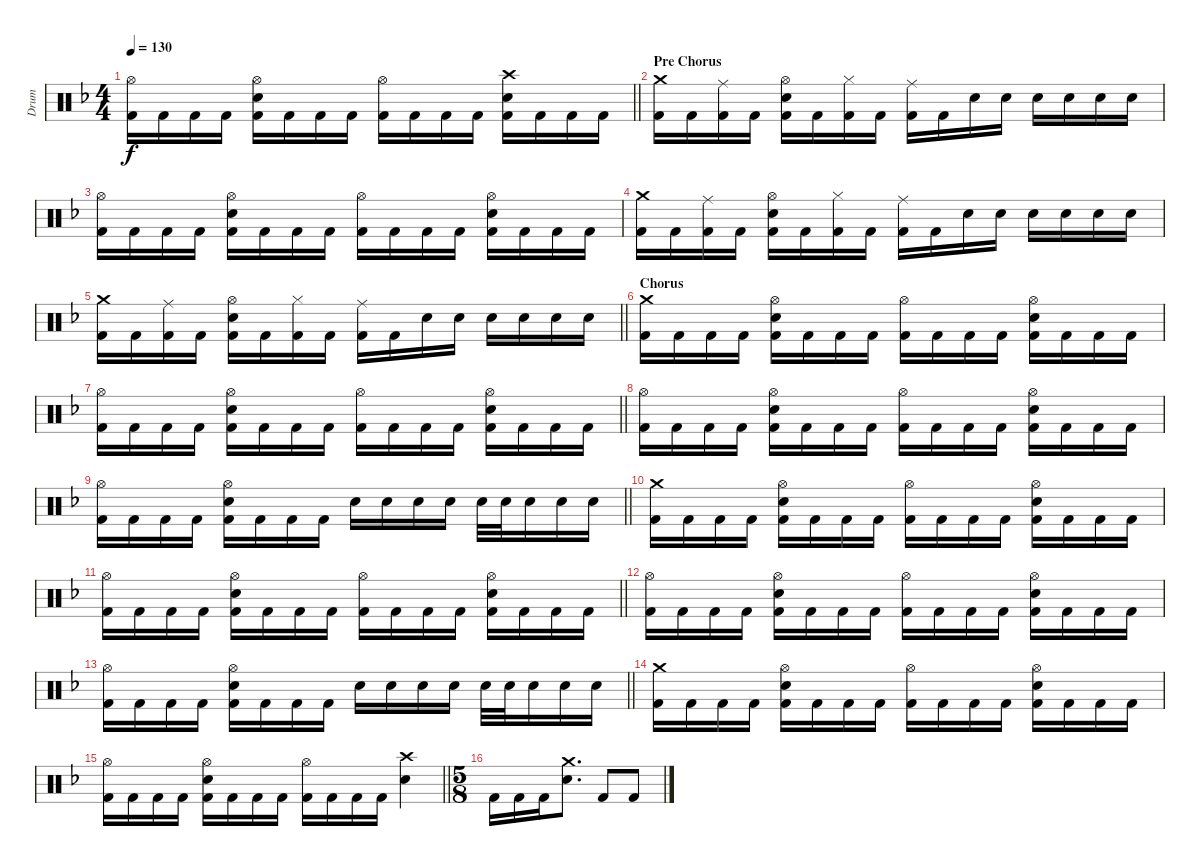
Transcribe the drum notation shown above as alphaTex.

\track ("Drum" "Drum") {instrument percussion}
\staff {score}
\articulation defaults
\ts (4 4)
\tempo 130
\clef neutral
\barLineRight lightlight
\ks f
("Hi-Hat (open)" "Kick (hit) 2").16{dy f} "Kick (hit) 2".16 "Kick (hit) 2".16 "Kick (hit) 2".16 ("Hi-Hat (open)" "Electric Snare (hit)" "Kick (hit) 2").16 "Kick (hit) 2".16 "Kick (hit) 2".16 "Kick (hit) 2".16 ("Hi-Hat (open)" "Kick (hit) 2").16 "Kick (hit) 2".16 "Kick (hit) 2".16 "Kick (hit) 2".16 ("Crash high (hit)" "Electric Snare (hit)" "Kick (hit) 2").16 "Kick (hit) 2".16 "Kick (hit) 2".16 "Kick (hit) 2".16 |
\section ("" "Pre Chorus")
("Crash medium (hit)" "Kick (hit) 2").16 "Kick (hit) 2".16 ("Ride (middle)" "Kick (hit) 2").16 "Kick (hit) 2".16 ("Hi-Hat (open)" "Electric Snare (hit)" "Kick (hit) 2").16 "Kick (hit) 2".16 ("Hi-Hat (closed)" "Kick (hit) 2").16 "Kick (hit) 2".16 ("Ride (middle)" "Kick (hit) 2").16 "Kick (hit) 2".16 "Electric Snare (hit)".16 "Electric Snare (hit)".16 "Electric Snare (hit)".16 "Electric Snare (hit)".16 "Electric Snare (hit)".16 "Electric Snare (hit)".16 |
("Hi-Hat (open)" "Kick (hit) 2").16 "Kick (hit) 2".16 "Kick (hit) 2".16 "Kick (hit) 2".16 ("Hi-Hat (open)" "Electric Snare (hit)" "Kick (hit) 2").16 "Kick (hit) 2".16 "Kick (hit) 2".16 "Kick (hit) 2".16 ("Hi-Hat (open)" "Kick (hit) 2").16 "Kick (hit) 2".16 "Kick (hit) 2".16 "Kick (hit) 2".16 ("Hi-Hat (open)" "Electric Snare (hit)" "Kick (hit) 2").16 "Kick (hit) 2".16 "Kick (hit) 2".16 "Kick (hit) 2".16 |
("Crash medium (hit)" "Kick (hit) 2").16 "Kick (hit) 2".16 ("Ride (middle)" "Kick (hit) 2").16 "Kick (hit) 2".16 ("Hi-Hat (open)" "Electric Snare (hit)" "Kick (hit) 2").16 "Kick (hit) 2".16 ("Hi-Hat (closed)" "Kick (hit) 2").16 "Kick (hit) 2".16 ("Ride (middle)" "Kick (hit) 2").16 "Kick (hit) 2".16 "Electric Snare (hit)".16 "Electric Snare (hit)".16 "Electric Snare (hit)".16 "Electric Snare (hit)".16 "Electric Snare (hit)".16 "Electric Snare (hit)".16 |
\barLineRight lightlight
("Crash medium (hit)" "Kick (hit) 2").16 "Kick (hit) 2".16 ("Ride (middle)" "Kick (hit) 2").16 "Kick (hit) 2".16 ("Hi-Hat (open)" "Electric Snare (hit)" "Kick (hit) 2").16 "Kick (hit) 2".16 ("Hi-Hat (closed)" "Kick (hit) 2").16 "Kick (hit) 2".16 ("Ride (middle)" "Kick (hit) 2").16 "Kick (hit) 2".16 "Electric Snare (hit)".16 "Electric Snare (hit)".16 "Electric Snare (hit)".16 "Electric Snare (hit)".16 "Electric Snare (hit)".16 "Electric Snare (hit)".16 |
\section ("" "Chorus")
("Crash medium (hit)" "Kick (hit) 2").16 "Kick (hit) 2".16 "Kick (hit) 2".16 "Kick (hit) 2".16 ("Hi-Hat (open)" "Electric Snare (hit)" "Kick (hit) 2").16 "Kick (hit) 2".16 "Kick (hit) 2".16 "Kick (hit) 2".16 ("Hi-Hat (open)" "Kick (hit) 2").16 "Kick (hit) 2".16 "Kick (hit) 2".16 "Kick (hit) 2".16 ("Hi-Hat (open)" "Electric Snare (hit)" "Kick (hit) 2").16 "Kick (hit) 2".16 "Kick (hit) 2".16 "Kick (hit) 2".16 |
\barLineRight lightlight
("Hi-Hat (open)" "Kick (hit) 2").16 "Kick (hit) 2".16 "Kick (hit) 2".16 "Kick (hit) 2".16 ("Hi-Hat (open)" "Electric Snare (hit)" "Kick (hit) 2").16 "Kick (hit) 2".16 "Kick (hit) 2".16 "Kick (hit) 2".16 ("Hi-Hat (open)" "Kick (hit) 2").16 "Kick (hit) 2".16 "Kick (hit) 2".16 "Kick (hit) 2".16 ("Hi-Hat (open)" "Electric Snare (hit)" "Kick (hit) 2").16 "Kick (hit) 2".16 "Kick (hit) 2".16 "Kick (hit) 2".16 |
("Hi-Hat (open)" "Kick (hit) 2").16 "Kick (hit) 2".16 "Kick (hit) 2".16 "Kick (hit) 2".16 ("Hi-Hat (open)" "Electric Snare (hit)" "Kick (hit) 2").16 "Kick (hit) 2".16 "Kick (hit) 2".16 "Kick (hit) 2".16 ("Hi-Hat (open)" "Kick (hit) 2").16 "Kick (hit) 2".16 "Kick (hit) 2".16 "Kick (hit) 2".16 ("Hi-Hat (open)" "Electric Snare (hit)" "Kick (hit) 2").16 "Kick (hit) 2".16 "Kick (hit) 2".16 "Kick (hit) 2".16 |
\barLineRight lightlight
("Hi-Hat (open)" "Kick (hit) 2").16 "Kick (hit) 2".16 "Kick (hit) 2".16 "Kick (hit) 2".16 ("Hi-Hat (open)" "Electric Snare (hit)" "Kick (hit) 2").16 "Kick (hit) 2".16 "Kick (hit) 2".16 "Kick (hit) 2".16 "Electric Snare (hit)".16 "Electric Snare (hit)".16 "Electric Snare (hit)".16 "Electric Snare (hit)".16 "Electric Snare (hit)".32 "Electric Snare (hit)".32 "Electric Snare (hit)".16 "Electric Snare (hit)".16 "Electric Snare (hit)".16 |
("Crash medium (hit)" "Kick (hit) 2").16 "Kick (hit) 2".16 "Kick (hit) 2".16 "Kick (hit) 2".16 ("Hi-Hat (open)" "Electric Snare (hit)" "Kick (hit) 2").16 "Kick (hit) 2".16 "Kick (hit) 2".16 "Kick (hit) 2".16 ("Hi-Hat (open)" "Kick (hit) 2").16 "Kick (hit) 2".16 "Kick (hit) 2".16 "Kick (hit) 2".16 ("Hi-Hat (open)" "Electric Snare (hit)" "Kick (hit) 2").16 "Kick (hit) 2".16 "Kick (hit) 2".16 "Kick (hit) 2".16 |
\barLineRight lightlight
("Hi-Hat (open)" "Kick (hit) 2").16 "Kick (hit) 2".16 "Kick (hit) 2".16 "Kick (hit) 2".16 ("Hi-Hat (open)" "Electric Snare (hit)" "Kick (hit) 2").16 "Kick (hit) 2".16 "Kick (hit) 2".16 "Kick (hit) 2".16 ("Hi-Hat (open)" "Kick (hit) 2").16 "Kick (hit) 2".16 "Kick (hit) 2".16 "Kick (hit) 2".16 ("Hi-Hat (open)" "Electric Snare (hit)" "Kick (hit) 2").16 "Kick (hit) 2".16 "Kick (hit) 2".16 "Kick (hit) 2".16 |
("Hi-Hat (open)" "Kick (hit) 2").16 "Kick (hit) 2".16 "Kick (hit) 2".16 "Kick (hit) 2".16 ("Hi-Hat (open)" "Electric Snare (hit)" "Kick (hit) 2").16 "Kick (hit) 2".16 "Kick (hit) 2".16 "Kick (hit) 2".16 ("Hi-Hat (open)" "Kick (hit) 2").16 "Kick (hit) 2".16 "Kick (hit) 2".16 "Kick (hit) 2".16 ("Hi-Hat (open)" "Electric Snare (hit)" "Kick (hit) 2").16 "Kick (hit) 2".16 "Kick (hit) 2".16 "Kick (hit) 2".16 |
\barLineRight lightlight
("Hi-Hat (open)" "Kick (hit) 2").16 "Kick (hit) 2".16 "Kick (hit) 2".16 "Kick (hit) 2".16 ("Hi-Hat (open)" "Electric Snare (hit)" "Kick (hit) 2").16 "Kick (hit) 2".16 "Kick (hit) 2".16 "Kick (hit) 2".16 "Electric Snare (hit)".16 "Electric Snare (hit)".16 "Electric Snare (hit)".16 "Electric Snare (hit)".16 "Electric Snare (hit)".32 "Electric Snare (hit)".32 "Electric Snare (hit)".16 "Electric Snare (hit)".16 "Electric Snare (hit)".16 |
("Crash medium (hit)" "Kick (hit) 2").16 "Kick (hit) 2".16 "Kick (hit) 2".16 "Kick (hit) 2".16 ("Hi-Hat (open)" "Electric Snare (hit)" "Kick (hit) 2").16 "Kick (hit) 2".16 "Kick (hit) 2".16 "Kick (hit) 2".16 ("Hi-Hat (open)" "Kick (hit) 2").16 "Kick (hit) 2".16 "Kick (hit) 2".16 "Kick (hit) 2".16 ("Hi-Hat (open)" "Electric Snare (hit)" "Kick (hit) 2").16 "Kick (hit) 2".16 "Kick (hit) 2".16 "Kick (hit) 2".16 |
\barLineRight lightlight
("Hi-Hat (open)" "Kick (hit) 2").16 "Kick (hit) 2".16 "Kick (hit) 2".16 "Kick (hit) 2".16 ("Hi-Hat (open)" "Electric Snare (hit)" "Kick (hit) 2").16 "Kick (hit) 2".16 "Kick (hit) 2".16 "Kick (hit) 2".16 ("Hi-Hat (open)" "Kick (hit) 2").16 "Kick (hit) 2".16 "Kick (hit) 2".16 "Kick (hit) 2".16 ("Crash high (hit)" "Electric Snare (hit)").4 |
\ts (5 8)
"Kick (hit) 2".16 "Kick (hit) 2".16 "Kick (hit) 2".16 ("Crash medium (hit)" "Electric Snare (hit)").8{d} "Kick (hit) 2".8 "Kick (hit) 2".8
